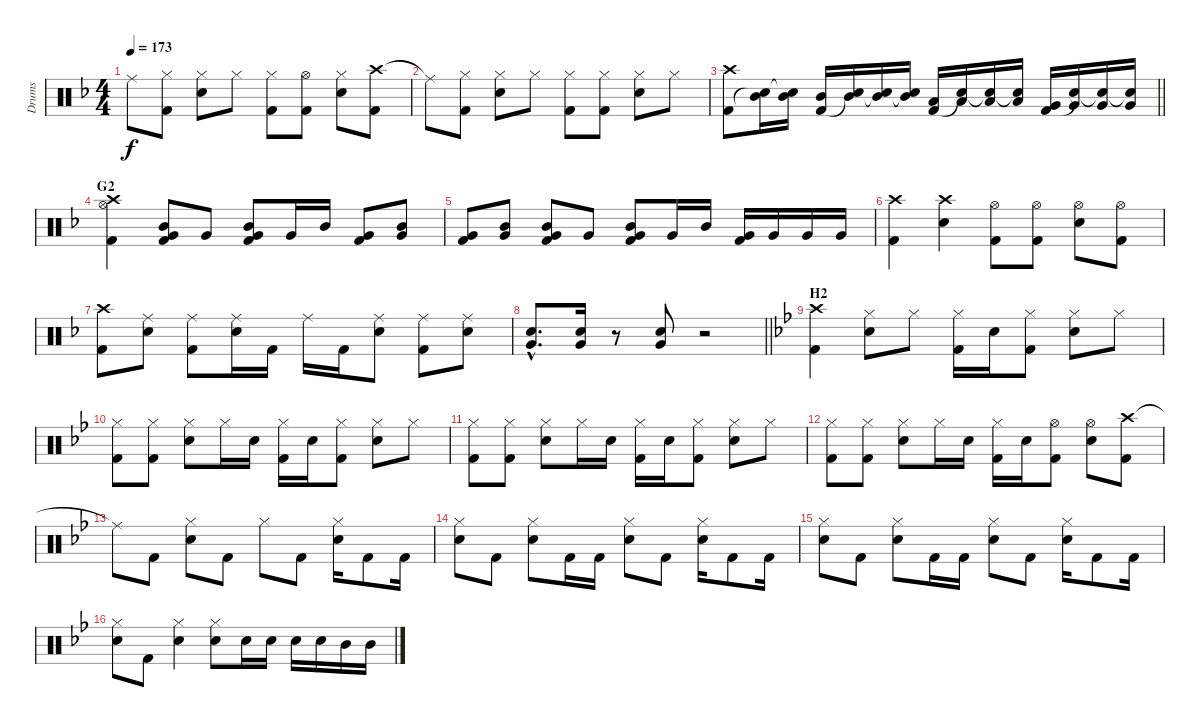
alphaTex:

\track ("Drums" "Drums") {instrument percussion}
\staff {score}
\articulation defaults
\ts (4 4)
\tempo 173
\clef neutral
\ks dminor "Ride (middle)"{t}.8{dy f}
("Hi-Hat (closed)" "Kick (hit) 2").8 ("Hi-Hat (closed)" "Snare (hit) 2").8 "Hi-Hat (closed)".8 ("Hi-Hat (closed)" "Kick (hit) 2").8 ("Hi-Hat (open)" "Kick (hit) 2").8 ("Hi-Hat (closed)" "Snare (hit) 2").8 ("Crash high (hit)" "Kick (hit) 2").8 |
"Ride (middle)"{t}.8 ("Hi-Hat (closed)" "Kick (hit) 2").8 ("Hi-Hat (closed)" "Snare (hit) 2").8 "Hi-Hat (closed)".8 ("Hi-Hat (closed)" "Kick (hit) 2").8 ("Hi-Hat (closed)" "Kick (hit) 2").8 ("Hi-Hat (closed)" "Snare (hit) 2").8 "Hi-Hat (closed)".8 |
\barLineRight lightlight
("Crash high (hit)" "Kick (hit) 2").8 ("Mid Tom (hit)" "Snare (hit)"{t}).16 ("Mid Tom (hit)" "Snare (hit)"{t}).16 ("Mid Tom (hit)" "Kick (hit) 2").16 ("Mid Tom (hit)" "Snare (hit)"{t}).16 ("Mid Tom (hit)" "Snare (hit)"{t}).16 ("Mid Tom (hit)" "Snare (hit)"{t}).16 ("Low Tom (hit)" "Kick (hit) 2").16 ("Low Tom (hit)" "Snare (hit)"{t}).16 ("Low Tom (hit)" "Snare (hit)"{t}).16 ("Low Tom (hit)" "Snare (hit)"{t}).16 ("Very Low Tom (hit)" "Kick (hit) 2").16 ("Very Low Tom (hit)" "Snare (hit)"{t}).16 ("Very Low Tom (hit)" "Snare (hit)"{t}).16 ("Very Low Tom (hit)" "Snare (hit)"{t}).16 |
\section ("" "G2")
("Crash high (hit)" "Hi-Hat (open)" "Kick (hit) 2").4 ("Mid Tom (hit)" "Very Low Tom (hit)" "Kick (hit) 2").8 "Very Low Tom (hit)".8 ("Mid Tom (hit)" "Very Low Tom (hit)" "Kick (hit) 2").8 "Very Low Tom (hit)".16 "Mid Tom (hit)".16 ("Very Low Tom (hit)" "Kick (hit) 2").8 ("Mid Tom (hit)" "Very Low Tom (hit)").8 |
("Very Low Tom (hit)" "Kick (hit) 2").8 ("Mid Tom (hit)" "Very Low Tom (hit)").8 ("Mid Tom (hit)" "Very Low Tom (hit)" "Kick (hit) 2").8 "Very Low Tom (hit)".8 ("Mid Tom (hit)" "Very Low Tom (hit)" "Kick (hit) 2").8 "Very Low Tom (hit)".16 "Mid Tom (hit)".16 ("Very Low Tom (hit)" "Kick (hit) 2").16 "Very Low Tom (hit)".16 "Very Low Tom (hit)".16 "Very Low Tom (hit)".16 |
("Crash high (hit)" "Kick (hit) 2").4 ("Crash high (hit)" "Snare (hit) 2").4 ("Hi-Hat (open)" "Kick (hit) 2").8 ("Hi-Hat (open)" "Kick (hit) 2").8 ("Hi-Hat (open)" "Snare (hit) 2").8 ("Hi-Hat (open)" "Kick (hit) 2").8 |
("Crash high (hit)" "Kick (hit) 2").8 ("Ride (middle)" "Snare (hit) 2").8 ("Ride (middle)" "Kick (hit) 2").8 ("Ride (middle)" "Snare (hit) 2").16 "Kick (hit) 2".16 "Ride (middle)".16 "Kick (hit) 2".16 ("Ride (middle)" "Snare (hit) 2").8 ("Ride (middle)" "Kick (hit) 2").8 ("Ride (middle)" "Snare (hit) 2").8 |
\barLineRight lightlight
("Snare (hit) 2"{hac} "Very Low Tom (hit)"{hac}).8{d} ("Snare (hit) 2" "Very Low Tom (hit)").16 r.8 ("Snare (hit) 2" "Very Low Tom (hit)").8 r.2 |
\section ("" "H2")
\ks bb
("Crash high (hit)" "Kick (hit) 2").4 ("Hi-Hat (closed)" "Snare (hit) 2").8 "Hi-Hat (closed)".8 ("Hi-Hat (closed)" "Kick (hit) 2").16 "Snare (hit) 2".16 ("Hi-Hat (closed)" "Kick (hit) 2").8 ("Hi-Hat (closed)" "Snare (hit) 2").8 "Hi-Hat (closed)".8 |
("Hi-Hat (closed)" "Kick (hit) 2").8 ("Hi-Hat (closed)" "Kick (hit) 2").8 ("Hi-Hat (closed)" "Snare (hit) 2").8 "Hi-Hat (closed)".16 "Snare (hit) 2".16 ("Hi-Hat (closed)" "Kick (hit) 2").16 "Snare (hit) 2".16 ("Hi-Hat (closed)" "Kick (hit) 2").8 ("Hi-Hat (closed)" "Snare (hit) 2").8 "Hi-Hat (closed)".8 |
("Hi-Hat (closed)" "Kick (hit) 2").8 ("Hi-Hat (closed)" "Kick (hit) 2").8 ("Hi-Hat (closed)" "Snare (hit) 2").8 "Hi-Hat (closed)".16 "Snare (hit) 2".16 ("Hi-Hat (closed)" "Kick (hit) 2").16 "Snare (hit) 2".16 ("Hi-Hat (closed)" "Kick (hit) 2").8 ("Hi-Hat (closed)" "Snare (hit) 2").8 "Hi-Hat (closed)".8 |
("Hi-Hat (closed)" "Kick (hit) 2").8 ("Hi-Hat (closed)" "Kick (hit) 2").8 ("Hi-Hat (closed)" "Snare (hit) 2").8 "Hi-Hat (closed)".16 "Snare (hit) 2".16 ("Hi-Hat (closed)" "Kick (hit) 2").16 "Snare (hit) 2".16 ("Hi-Hat (open)" "Kick (hit) 2").8 ("Hi-Hat (open)" "Snare (hit) 2").8 ("Crash high (hit)" "Kick (hit) 2").8 |
"Ride (middle)"{t}.8 "Kick (hit) 2".8 ("Hi-Hat (closed)" "Snare (hit) 2").8 "Kick (hit) 2".8 "Hi-Hat (closed)".8 "Kick (hit) 2".8 ("Hi-Hat (closed)" "Snare (hit) 2").16 "Kick (hit) 2".8 "Kick (hit) 2".16 |
("Hi-Hat (closed)" "Snare (hit) 2").8 "Kick (hit) 2".8 ("Hi-Hat (closed)" "Snare (hit) 2").8 "Kick (hit) 2".16 "Kick (hit) 2".16 ("Hi-Hat (closed)" "Snare (hit) 2").8 "Kick (hit) 2".8 ("Hi-Hat (closed)" "Snare (hit) 2").16 "Kick (hit) 2".8 "Kick (hit) 2".16 |
("Hi-Hat (closed)" "Snare (hit) 2").8 "Kick (hit) 2".8 ("Hi-Hat (closed)" "Snare (hit) 2").8 "Kick (hit) 2".16 "Kick (hit) 2".16 ("Hi-Hat (closed)" "Snare (hit) 2").8 "Kick (hit) 2".8 ("Hi-Hat (closed)" "Snare (hit) 2").16 "Kick (hit) 2".8 "Kick (hit) 2".16 |
("Hi-Hat (closed)" "Snare (hit) 2").8 "Kick (hit) 2".8 ("Hi-Hat (closed)" "Snare (hit) 2").4 ("Hi-Hat (closed)" "Snare (hit) 2").8 "Snare (hit) 2".16 "Snare (hit) 2".16 "Snare (hit) 2".16 "Snare (hit) 2".16 "Mid Tom (hit)".16 "Mid Tom (hit)".16
